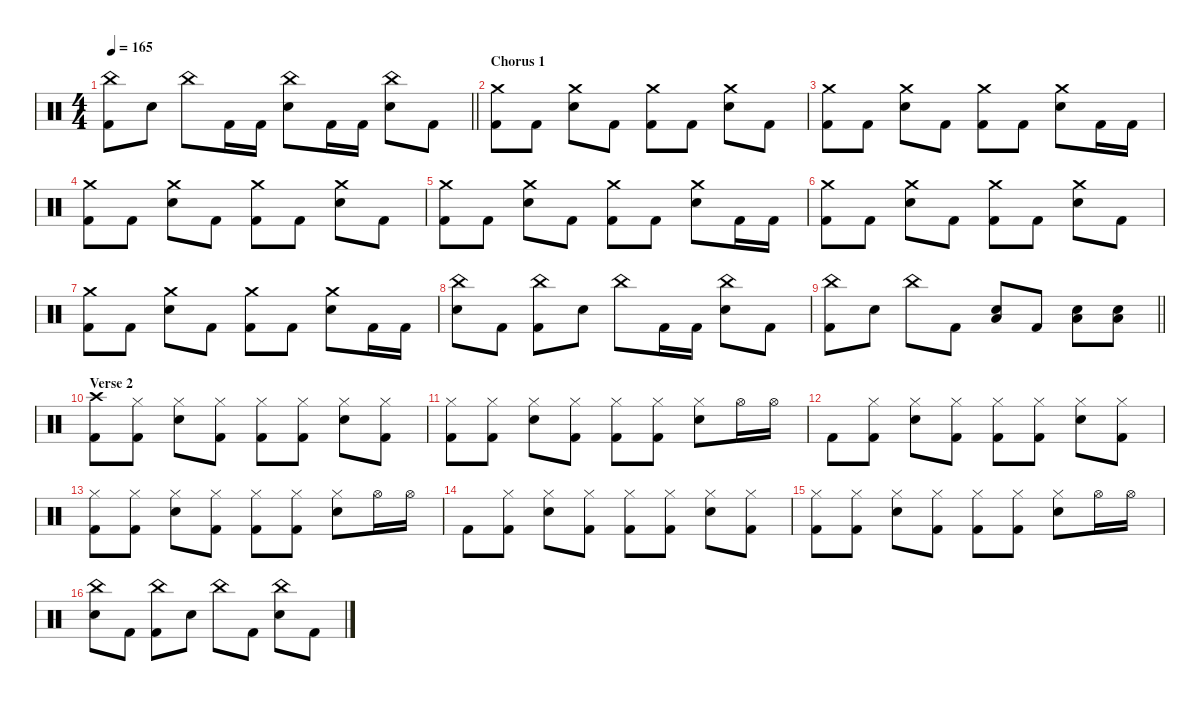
\defaultSystemsLayout 4
\hideDynamics
\bracketExtendMode nobrackets
\singleTrackTrackNamePolicy hidden
\multiTrackTrackNamePolicy hidden
\firstSystemTrackNameMode fullname
\firstSystemTrackNameOrientation horizontal
\otherSystemsTrackNameOrientation horizontal
\track ("Percussions" "drm.") {instrument percussion}
\staff {score}
\articulation defaults
\ts (4 4)
\tempo 165
\clef neutral
\barLineRight lightlight
\ks c
("China (hit)" "Kick (hit) 2").8{dy f beam Down} "Snare (hit) 2".8{beam Down} "China (hit)".8{beam Down} "Kick (hit) 2".16{beam Down} "Kick (hit) 2".16{beam Down} ("China (hit)" "Snare (hit) 2").8{beam Down} "Kick (hit) 2".16{beam Down} "Kick (hit) 2".16{beam Down} ("China (hit)" "Snare (hit) 2").8{beam Down} "Kick (hit) 2".8{beam Down} |
\section ("" "Chorus 1")
("Crash medium (hit)" "Kick (hit) 2").8{beam Down} "Kick (hit) 2".8{beam Down} ("Crash medium (hit)" "Snare (hit) 2").8{beam Down} "Kick (hit) 2".8{beam Down} ("Crash medium (hit)" "Kick (hit) 2").8{beam Down} "Kick (hit) 2".8{beam Down} ("Crash medium (hit)" "Snare (hit) 2").8{beam Down} "Kick (hit) 2".8{beam Down} |
("Crash medium (hit)" "Kick (hit) 2").8{beam Down} "Kick (hit) 2".8{beam Down} ("Crash medium (hit)" "Snare (hit) 2").8{beam Down} "Kick (hit) 2".8{beam Down} ("Crash medium (hit)" "Kick (hit) 2").8{beam Down} "Kick (hit) 2".8{beam Down} ("Crash medium (hit)" "Snare (hit) 2").8{beam Down} "Kick (hit) 2".16{beam Down} "Kick (hit) 2".16{beam Down} |
("Crash medium (hit)" "Kick (hit) 2").8{beam Down} "Kick (hit) 2".8{beam Down} ("Crash medium (hit)" "Snare (hit) 2").8{beam Down} "Kick (hit) 2".8{beam Down} ("Crash medium (hit)" "Kick (hit) 2").8{beam Down} "Kick (hit) 2".8{beam Down} ("Crash medium (hit)" "Snare (hit) 2").8{beam Down} "Kick (hit) 2".8{beam Down} |
("Crash medium (hit)" "Kick (hit) 2").8{beam Down} "Kick (hit) 2".8{beam Down} ("Crash medium (hit)" "Snare (hit) 2").8{beam Down} "Kick (hit) 2".8{beam Down} ("Crash medium (hit)" "Kick (hit) 2").8{beam Down} "Kick (hit) 2".8{beam Down} ("Crash medium (hit)" "Snare (hit) 2").8{beam Down} "Kick (hit) 2".16{beam Down} "Kick (hit) 2".16{beam Down} |
("Crash medium (hit)" "Kick (hit) 2").8{beam Down} "Kick (hit) 2".8{beam Down} ("Crash medium (hit)" "Snare (hit) 2").8{beam Down} "Kick (hit) 2".8{beam Down} ("Crash medium (hit)" "Kick (hit) 2").8{beam Down} "Kick (hit) 2".8{beam Down} ("Crash medium (hit)" "Snare (hit) 2").8{beam Down} "Kick (hit) 2".8{beam Down} |
("Crash medium (hit)" "Kick (hit) 2").8{beam Down} "Kick (hit) 2".8{beam Down} ("Crash medium (hit)" "Snare (hit) 2").8{beam Down} "Kick (hit) 2".8{beam Down} ("Crash medium (hit)" "Kick (hit) 2").8{beam Down} "Kick (hit) 2".8{beam Down} ("Crash medium (hit)" "Snare (hit) 2").8{beam Down} "Kick (hit) 2".16{beam Down} "Kick (hit) 2".16{beam Down} |
("China (hit)" "Snare (hit) 2").8{beam Down} "Kick (hit) 2".8{beam Down} ("China (hit)" "Kick (hit) 2").8{beam Down} "Snare (hit) 2".8{beam Down} "China (hit)".8{beam Down} "Kick (hit) 2".16{beam Down} "Kick (hit) 2".16{beam Down} ("China (hit)" "Snare (hit) 2").8{beam Down} "Kick (hit) 2".8{beam Down} |
\barLineRight lightlight
("China (hit)" "Kick (hit) 2").8{beam Down} "Snare (hit) 2".8{beam Down} "China (hit)".8{beam Down} "Kick (hit) 2".8{beam Down} ("Snare (hit) 2" "Low Floor Tom (hit)").8{beam Up} "Kick (hit) 2".8{beam Up} ("Snare (hit) 2" "Low Floor Tom (hit)").8{beam Down} ("Snare (hit) 2" "Low Floor Tom (hit)").8{beam Down} |
\section ("" "Verse 2")
("Crash high (hit)" "Kick (hit) 2").8{beam Down} ("Hi-Hat (closed)" "Kick (hit) 2").8{beam Down} ("Hi-Hat (closed)" "Snare (hit) 2").8{beam Down} ("Hi-Hat (closed)" "Kick (hit) 2").8{beam Down} ("Hi-Hat (closed)" "Kick (hit) 2").8{beam Down} ("Hi-Hat (closed)" "Kick (hit) 2").8{beam Down} ("Hi-Hat (closed)" "Snare (hit) 2").8{beam Down} ("Hi-Hat (closed)" "Kick (hit) 2").8{beam Down} |
("Hi-Hat (closed)" "Kick (hit) 2").8{beam Down} ("Hi-Hat (closed)" "Kick (hit) 2").8{beam Down} ("Hi-Hat (closed)" "Snare (hit) 2").8{beam Down} ("Hi-Hat (closed)" "Kick (hit) 2").8{beam Down} ("Hi-Hat (closed)" "Kick (hit) 2").8{beam Down} ("Hi-Hat (closed)" "Kick (hit) 2").8{beam Down} ("Hi-Hat (closed)" "Snare (hit) 2").8{beam Down} "Hi-Hat (open)".16{beam Down} "Hi-Hat (open)".16{beam Down} |
"Kick (hit) 2".8{beam Down} ("Hi-Hat (closed)" "Kick (hit) 2").8{beam Down} ("Hi-Hat (closed)" "Snare (hit) 2").8{beam Down} ("Hi-Hat (closed)" "Kick (hit) 2").8{beam Down} ("Hi-Hat (closed)" "Kick (hit) 2").8{beam Down} ("Hi-Hat (closed)" "Kick (hit) 2").8{beam Down} ("Hi-Hat (closed)" "Snare (hit) 2").8{beam Down} ("Hi-Hat (closed)" "Kick (hit) 2").8{beam Down} |
("Hi-Hat (closed)" "Kick (hit) 2").8{beam Down} ("Hi-Hat (closed)" "Kick (hit) 2").8{beam Down} ("Hi-Hat (closed)" "Snare (hit) 2").8{beam Down} ("Hi-Hat (closed)" "Kick (hit) 2").8{beam Down} ("Hi-Hat (closed)" "Kick (hit) 2").8{beam Down} ("Hi-Hat (closed)" "Kick (hit) 2").8{beam Down} ("Hi-Hat (closed)" "Snare (hit) 2").8{beam Down} "Hi-Hat (open)".16{beam Down} "Hi-Hat (open)".16{beam Down} |
"Kick (hit) 2".8{beam Down} ("Hi-Hat (closed)" "Kick (hit) 2").8{beam Down} ("Hi-Hat (closed)" "Snare (hit) 2").8{beam Down} ("Hi-Hat (closed)" "Kick (hit) 2").8{beam Down} ("Hi-Hat (closed)" "Kick (hit) 2").8{beam Down} ("Hi-Hat (closed)" "Kick (hit) 2").8{beam Down} ("Hi-Hat (closed)" "Snare (hit) 2").8{beam Down} ("Hi-Hat (closed)" "Kick (hit) 2").8{beam Down} |
("Hi-Hat (closed)" "Kick (hit) 2").8{beam Down} ("Hi-Hat (closed)" "Kick (hit) 2").8{beam Down} ("Hi-Hat (closed)" "Snare (hit) 2").8{beam Down} ("Hi-Hat (closed)" "Kick (hit) 2").8{beam Down} ("Hi-Hat (closed)" "Kick (hit) 2").8{beam Down} ("Hi-Hat (closed)" "Kick (hit) 2").8{beam Down} ("Hi-Hat (closed)" "Snare (hit) 2").8{beam Down} "Hi-Hat (open)".16{beam Down} "Hi-Hat (open)".16{beam Down} |
("China (hit)" "Snare (hit) 2").8{beam Down} "Kick (hit) 2".8{beam Down} ("China (hit)" "Kick (hit) 2").8{beam Down} "Snare (hit) 2".8{beam Down} "China (hit)".8{beam Down} "Kick (hit) 2".8{beam Down} ("China (hit)" "Snare (hit) 2").8{beam Down} "Kick (hit) 2".8{beam Down}
